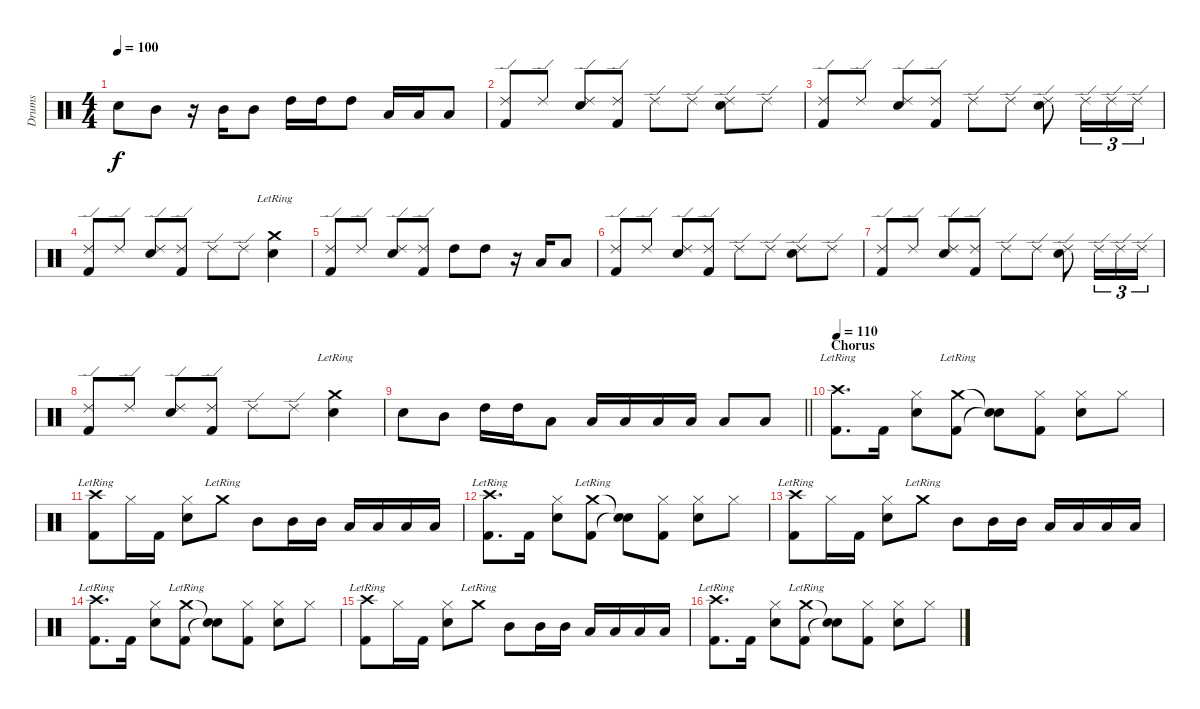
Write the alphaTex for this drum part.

\track ("Drums" "Drums") {instrument percussion}
\staff {score}
\articulation defaults
\ts (4 4)
\tempo 100
\clef neutral
\ks c "Snare (hit) 2".8{dy f} "Mid Tom (hit)".8
r.16 "Mid Tom (hit)".16 "Mid Tom (hit)".8 "High Tom (hit)".16 "High Tom (hit)".16 "High Tom (hit)".8 "Low Tom (hit)".16 "Low Tom (hit)".16 "Low Tom (hit)".8 |
("Ride (edge) 2" "Kick (hit) 2").8 "Ride (edge) 2".8 ("Ride (edge) 2" "Snare (hit) 2").8 ("Ride (edge) 2" "Kick (hit) 2").8 "Ride (edge) 2".8 "Ride (edge) 2".8 ("Ride (edge) 2" "Snare (hit) 2").8 "Ride (edge) 2".8 |
("Ride (edge) 2" "Kick (hit) 2").8 "Ride (edge) 2".8 ("Ride (edge) 2" "Snare (hit) 2").8 ("Ride (edge) 2" "Kick (hit) 2").8 "Ride (edge) 2".8 "Ride (edge) 2".8 ("Ride (edge) 2" "Snare (hit) 2").8 "Ride (edge) 2".16{tu (3 2)} "Ride (edge) 2".16{tu (3 2)} "Ride (edge) 2".16{tu (3 2)} |
("Ride (edge) 2" "Kick (hit) 2").8 "Ride (edge) 2".8 ("Ride (edge) 2" "Snare (hit) 2").8 ("Ride (edge) 2" "Kick (hit) 2").8 "Ride (edge) 2".8 "Ride (edge) 2".8 ("Crash medium (hit)"{lr} "Snare (hit) 2").4 |
("Ride (edge) 2" "Kick (hit) 2").8 "Ride (edge) 2".8 ("Ride (edge) 2" "Snare (hit) 2").8 ("Ride (edge) 2" "Kick (hit) 2").8 "High Tom (hit)".8 "High Tom (hit)".8 r.16 "Low Tom (hit)".16 "Low Tom (hit)".8 |
("Ride (edge) 2" "Kick (hit) 2").8 "Ride (edge) 2".8 ("Ride (edge) 2" "Snare (hit) 2").8 ("Ride (edge) 2" "Kick (hit) 2").8 "Ride (edge) 2".8 "Ride (edge) 2".8 ("Ride (edge) 2" "Snare (hit) 2").8 "Ride (edge) 2".8 |
("Ride (edge) 2" "Kick (hit) 2").8 "Ride (edge) 2".8 ("Ride (edge) 2" "Snare (hit) 2").8 ("Ride (edge) 2" "Kick (hit) 2").8 "Ride (edge) 2".8 "Ride (edge) 2".8 ("Ride (edge) 2" "Snare (hit) 2").8 "Ride (edge) 2".16{tu (3 2)} "Ride (edge) 2".16{tu (3 2)} "Ride (edge) 2".16{tu (3 2)} |
("Ride (edge) 2" "Kick (hit) 2").8 "Ride (edge) 2".8 ("Ride (edge) 2" "Snare (hit) 2").8 ("Ride (edge) 2" "Kick (hit) 2").8 "Ride (edge) 2".8 "Ride (edge) 2".8 ("Crash medium (hit)"{lr} "Snare (hit) 2").4 |
\barLineRight lightlight "Snare (hit) 2".8 "Mid Tom (hit)".8 "High Tom (hit)".16 "High Tom (hit)".16 "Low Tom (hit)".8 "Low Tom (hit)".16 "Low Tom (hit)".16 "Low Tom (hit)".16 "Low Tom (hit)".16 "Low Tom (hit)".8 "Low Tom (hit)".8
|
\section ("" "Chorus")
\tempo 110
("Crash high (hit)"{lr} "Kick (hit) 2").8{d} "Kick (hit) 2".16 ("Hi-Hat (closed)" "Snare (hit) 2").8 ("Crash medium (hit)"{lr} "Kick (hit) 2").8 ("Snare (hit)"{t} "Snare (hit)"{t}).8 ("Hi-Hat (closed)" "Kick (hit) 2").8 ("Hi-Hat (closed)" "Snare (hit) 2").8 "Hi-Hat (closed)".8 |
("Crash high (hit)"{lr} "Kick (hit) 2").8 "Hi-Hat (closed)".16 "Kick (hit) 2".16 ("Hi-Hat (closed)" "Snare (hit) 2").8 "Crash medium (hit)"{lr}.8 "Mid Tom (hit)".8 "Mid Tom (hit)".16 "Mid Tom (hit)".16 "Low Tom (hit)".16 "Low Tom (hit)".16 "Low Tom (hit)".16 "Low Tom (hit)".16 |
("Crash high (hit)"{lr} "Kick (hit) 2").8{d} "Kick (hit) 2".16 ("Hi-Hat (closed)" "Snare (hit) 2").8 ("Crash medium (hit)"{lr} "Kick (hit) 2").8 ("Snare (hit)"{t} "Snare (hit)"{t}).8 ("Hi-Hat (closed)" "Kick (hit) 2").8 ("Hi-Hat (closed)" "Snare (hit) 2").8 "Hi-Hat (closed)".8 |
("Crash high (hit)"{lr} "Kick (hit) 2").8 "Hi-Hat (closed)".16 "Kick (hit) 2".16 ("Hi-Hat (closed)" "Snare (hit) 2").8 "Crash medium (hit)"{lr}.8 "Mid Tom (hit)".8 "Mid Tom (hit)".16 "Mid Tom (hit)".16 "Low Tom (hit)".16 "Low Tom (hit)".16 "Low Tom (hit)".16 "Low Tom (hit)".16 |
("Crash high (hit)"{lr} "Kick (hit) 2").8{d} "Kick (hit) 2".16 ("Hi-Hat (closed)" "Snare (hit) 2").8 ("Crash medium (hit)"{lr} "Kick (hit) 2").8 ("Snare (hit)"{t} "Snare (hit)"{t}).8 ("Hi-Hat (closed)" "Kick (hit) 2").8 ("Hi-Hat (closed)" "Snare (hit) 2").8 "Hi-Hat (closed)".8 |
("Crash high (hit)"{lr} "Kick (hit) 2").8 "Hi-Hat (closed)".16 "Kick (hit) 2".16 ("Hi-Hat (closed)" "Snare (hit) 2").8 "Crash medium (hit)"{lr}.8 "Mid Tom (hit)".8 "Mid Tom (hit)".16 "Mid Tom (hit)".16 "Low Tom (hit)".16 "Low Tom (hit)".16 "Low Tom (hit)".16 "Low Tom (hit)".16 |
("Crash high (hit)"{lr} "Kick (hit) 2").8{d} "Kick (hit) 2".16 ("Hi-Hat (closed)" "Snare (hit) 2").8 ("Crash medium (hit)"{lr} "Kick (hit) 2").8 ("Snare (hit)"{t} "Snare (hit)"{t}).8 ("Hi-Hat (closed)" "Kick (hit) 2").8 ("Hi-Hat (closed)" "Snare (hit) 2").8 "Hi-Hat (closed)".8
